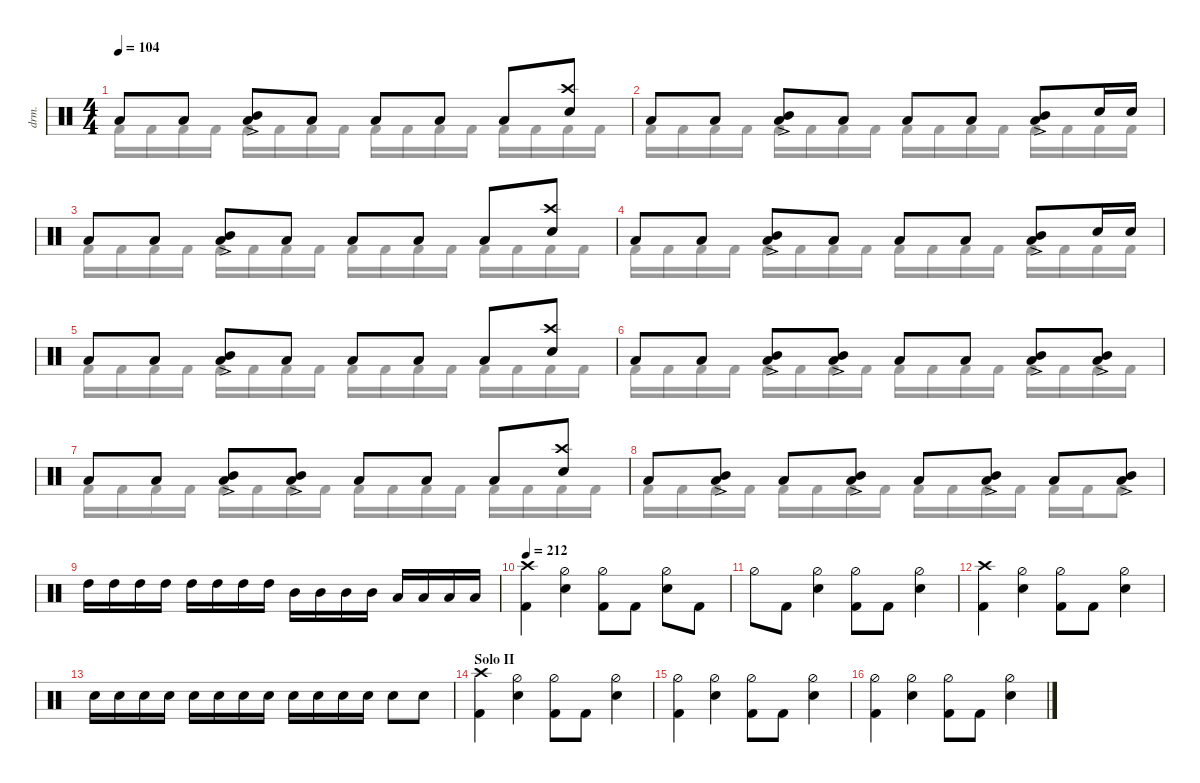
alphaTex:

\defaultSystemsLayout 4
\hideDynamics
\bracketExtendMode nobrackets
\track ("Drums" "drm.") {defaultSystemsLayout 4 multiBarRest instrument percussion}
\staff
\articulation defaults
\voice
\ts (4 4)
\tempo 104
\clef neutral
\ks c "Low Tom (hit)".8{dy fff} "Low Tom (hit)".8
("Low Tom (hit)" "Mid Tom (hit)"{ac}).8 "Low Tom (hit)".8 "Low Tom (hit)".8 "Low Tom (hit)".8 "Low Tom (hit)".8 ("Snare (hit) 2" "Crash high (hit)").8{dy f} |
"Low Tom (hit)".8{dy fff} "Low Tom (hit)".8 ("Low Tom (hit)" "Mid Tom (hit)"{ac}).8 "Low Tom (hit)".8 "Low Tom (hit)".8 "Low Tom (hit)".8 ("Low Tom (hit)" "Mid Tom (hit)"{ac}).8 "Snare (hit) 2".16{dy f} "Snare (hit) 2".16 |
"Low Tom (hit)".8{dy fff} "Low Tom (hit)".8 ("Low Tom (hit)" "Mid Tom (hit)"{ac}).8 "Low Tom (hit)".8 "Low Tom (hit)".8 "Low Tom (hit)".8 "Low Tom (hit)".8 ("Snare (hit) 2" "Crash high (hit)").8{dy f} |
"Low Tom (hit)".8{dy fff} "Low Tom (hit)".8 ("Low Tom (hit)" "Mid Tom (hit)"{ac}).8 "Low Tom (hit)".8 "Low Tom (hit)".8 "Low Tom (hit)".8 ("Low Tom (hit)" "Mid Tom (hit)"{ac}).8 "Snare (hit) 2".16{dy f} "Snare (hit) 2".16 |
"Low Tom (hit)".8{dy fff} "Low Tom (hit)".8 ("Low Tom (hit)" "Mid Tom (hit)"{ac}).8 "Low Tom (hit)".8 "Low Tom (hit)".8 "Low Tom (hit)".8 "Low Tom (hit)".8 ("Snare (hit) 2" "Crash high (hit)").8{dy f} |
"Low Tom (hit)".8{dy fff} "Low Tom (hit)".8 ("Low Tom (hit)" "Mid Tom (hit)"{ac}).8 ("Low Tom (hit)" "Mid Tom (hit)"{ac}).8 "Low Tom (hit)".8 "Low Tom (hit)".8 ("Low Tom (hit)" "Mid Tom (hit)"{ac}).8 ("Low Tom (hit)" "Mid Tom (hit)"{ac}).8 |
"Low Tom (hit)".8 "Low Tom (hit)".8 ("Low Tom (hit)" "Mid Tom (hit)"{ac}).8 ("Low Tom (hit)" "Mid Tom (hit)"{ac}).8 "Low Tom (hit)".8 "Low Tom (hit)".8 "Low Tom (hit)".8 ("Snare (hit) 2" "Crash high (hit)").8{dy f} |
"Low Tom (hit)".8{dy fff} ("Low Tom (hit)" "Mid Tom (hit)"{ac}).8 "Low Tom (hit)".8 ("Low Tom (hit)" "Mid Tom (hit)"{ac}).8 "Low Tom (hit)".8 ("Low Tom (hit)" "Mid Tom (hit)"{ac}).8 "Low Tom (hit)".8 ("Low Tom (hit)" "Mid Tom (hit)"{ac}).8 |
"High Tom (hit)".16 "High Tom (hit)".16 "High Tom (hit)".16 "High Tom (hit)".16 "High Tom (hit)".16 "High Tom (hit)".16 "High Tom (hit)".16 "High Tom (hit)".16 "Mid Tom (hit)".16 "Mid Tom (hit)".16 "Mid Tom (hit)".16 "Mid Tom (hit)".16 "Low Tom (hit)".16 "Low Tom (hit)".16 "Low Tom (hit)".16 "Low Tom (hit)".16 |
\tempo 212
("Crash high (hit)" "Kick (hit) 2").4{dy f} ("Hi-Hat (half)" "Snare (hit) 2").4 ("Hi-Hat (half)" "Kick (hit) 2").8 "Kick (hit) 2".8 ("Hi-Hat (half)" "Snare (hit) 2").8 "Kick (hit) 2".8 |
"Hi-Hat (half)".8 "Kick (hit) 2".8 ("Hi-Hat (half)" "Snare (hit) 2").4 ("Hi-Hat (half)" "Kick (hit) 2").8 "Kick (hit) 2".8 ("Hi-Hat (half)" "Snare (hit) 2").4 |
("Crash high (hit)" "Kick (hit) 2").4 ("Hi-Hat (half)" "Snare (hit) 2").4 ("Hi-Hat (half)" "Kick (hit) 2").8 "Kick (hit) 2".8 ("Hi-Hat (half)" "Snare (hit) 2").4 |
"Snare (hit) 2".16 "Snare (hit) 2".16{dy mp} "Snare (hit) 2".16 "Snare (hit) 2".16{dy mf} "Snare (hit) 2".16{dy f} "Snare (hit) 2".16{dy mp} "Snare (hit) 2".16 "Snare (hit) 2".16{dy mf} "Snare (hit) 2".16{dy f} "Snare (hit) 2".16{dy mp} "Snare (hit) 2".16 "Snare (hit) 2".16{dy mf} "Snare (hit) 2".8{dy f} "Snare (hit) 2".8 |
\section ("" "Solo II")
("Crash high (hit)" "Kick (hit) 2").4 ("Hi-Hat (half)" "Snare (hit) 2").4 ("Hi-Hat (half)" "Kick (hit) 2").8 "Kick (hit) 2".8 ("Hi-Hat (half)" "Snare (hit) 2").4 |
("Kick (hit) 2" "Hi-Hat (half)").4 ("Hi-Hat (half)" "Snare (hit) 2").4 ("Hi-Hat (half)" "Kick (hit) 2").8 "Kick (hit) 2".8 ("Hi-Hat (half)" "Snare (hit) 2").4 |
("Kick (hit) 2" "Hi-Hat (half)").4 ("Hi-Hat (half)" "Snare (hit) 2").4 ("Hi-Hat (half)" "Kick (hit) 2").8 "Kick (hit) 2".8 ("Hi-Hat (half)" "Snare (hit) 2").4
\voice
\clef neutral
\ottava regular
\simile none
\ks c "Kick (hit) 2".16{dy mf} "Kick (hit) 2".16 "Kick (hit) 2".16 "Kick (hit) 2".16 "Kick (hit) 2".16 "Kick (hit) 2".16 "Kick (hit) 2".16 "Kick (hit) 2".16 "Kick (hit) 2".16 "Kick (hit) 2".16 "Kick (hit) 2".16 "Kick (hit) 2".16 "Kick (hit) 2".16 "Kick (hit) 2".16 "Kick (hit) 2".16 "Kick (hit) 2".16
|
"Kick (hit) 2".16 "Kick (hit) 2".16 "Kick (hit) 2".16 "Kick (hit) 2".16 "Kick (hit) 2".16 "Kick (hit) 2".16 "Kick (hit) 2".16 "Kick (hit) 2".16 "Kick (hit) 2".16 "Kick (hit) 2".16 "Kick (hit) 2".16 "Kick (hit) 2".16 "Kick (hit) 2".16 "Kick (hit) 2".16 "Kick (hit) 2".16 "Kick (hit) 2".16 |
"Kick (hit) 2".16 "Kick (hit) 2".16 "Kick (hit) 2".16 "Kick (hit) 2".16 "Kick (hit) 2".16 "Kick (hit) 2".16 "Kick (hit) 2".16 "Kick (hit) 2".16 "Kick (hit) 2".16 "Kick (hit) 2".16 "Kick (hit) 2".16 "Kick (hit) 2".16 "Kick (hit) 2".16 "Kick (hit) 2".16 "Kick (hit) 2".16 "Kick (hit) 2".16 |
"Kick (hit) 2".16 "Kick (hit) 2".16 "Kick (hit) 2".16 "Kick (hit) 2".16 "Kick (hit) 2".16 "Kick (hit) 2".16 "Kick (hit) 2".16 "Kick (hit) 2".16 "Kick (hit) 2".16 "Kick (hit) 2".16 "Kick (hit) 2".16 "Kick (hit) 2".16 "Kick (hit) 2".16 "Kick (hit) 2".16 "Kick (hit) 2".16 "Kick (hit) 2".16 |
"Kick (hit) 2".16 "Kick (hit) 2".16 "Kick (hit) 2".16 "Kick (hit) 2".16 "Kick (hit) 2".16 "Kick (hit) 2".16 "Kick (hit) 2".16 "Kick (hit) 2".16 "Kick (hit) 2".16 "Kick (hit) 2".16 "Kick (hit) 2".16 "Kick (hit) 2".16 "Kick (hit) 2".16 "Kick (hit) 2".16 "Kick (hit) 2".16 "Kick (hit) 2".16 |
"Kick (hit) 2".16 "Kick (hit) 2".16 "Kick (hit) 2".16 "Kick (hit) 2".16 "Kick (hit) 2".16 "Kick (hit) 2".16 "Kick (hit) 2".16 "Kick (hit) 2".16 "Kick (hit) 2".16 "Kick (hit) 2".16 "Kick (hit) 2".16 "Kick (hit) 2".16 "Kick (hit) 2".16 "Kick (hit) 2".16 "Kick (hit) 2".16 "Kick (hit) 2".16 |
"Kick (hit) 2".16 "Kick (hit) 2".16 "Kick (hit) 2".16 "Kick (hit) 2".16 "Kick (hit) 2".16 "Kick (hit) 2".16 "Kick (hit) 2".16 "Kick (hit) 2".16 "Kick (hit) 2".16 "Kick (hit) 2".16 "Kick (hit) 2".16 "Kick (hit) 2".16 "Kick (hit) 2".16 "Kick (hit) 2".16 "Kick (hit) 2".16 "Kick (hit) 2".16 |
"Kick (hit) 2".16 "Kick (hit) 2".16 "Kick (hit) 2".16 "Kick (hit) 2".16 "Kick (hit) 2".16 "Kick (hit) 2".16 "Kick (hit) 2".16 "Kick (hit) 2".16 "Kick (hit) 2".16 "Kick (hit) 2".16 "Kick (hit) 2".16 "Kick (hit) 2".16 "Kick (hit) 2".16 "Kick (hit) 2".16 "Kick (hit) 2".8 |
|
|
|
|
|
|
|
